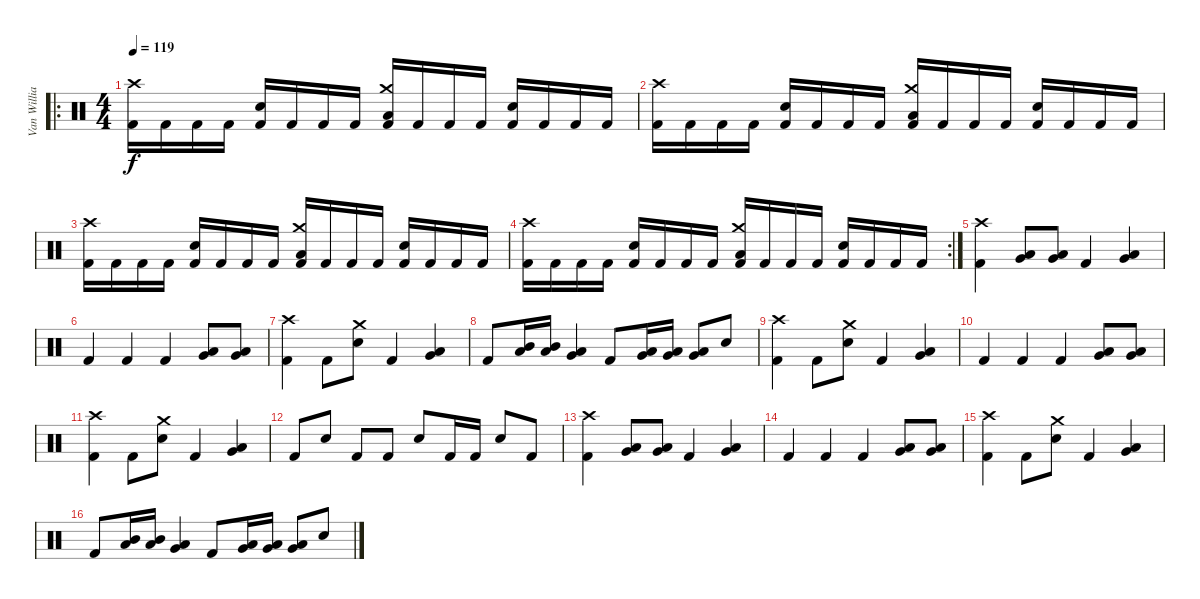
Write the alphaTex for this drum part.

\track ("Van Williams" "Van Willia") {instrument percussion}
\staff {score}
\articulation defaults
\ro
\ts (4 4)
\tempo 119
\clef neutral
\ks c
("Crash high (hit)" "Kick (hit) 2").16{dy f} "Kick (hit) 2".16 "Kick (hit) 2".16 "Kick (hit) 2".16 ("Electric Snare (hit)" "Kick (hit) 2").16 "Kick (hit) 2".16 "Kick (hit) 2".16 "Kick (hit) 2".16 ("Crash medium (hit)" "Low Floor Tom (hit)" "Kick (hit) 2").16 "Kick (hit) 2".16 "Kick (hit) 2".16 "Kick (hit) 2".16 ("Electric Snare (hit)" "Kick (hit) 2").16 "Kick (hit) 2".16 "Kick (hit) 2".16 "Kick (hit) 2".16 |
("Crash high (hit)" "Kick (hit) 2").16 "Kick (hit) 2".16 "Kick (hit) 2".16 "Kick (hit) 2".16 ("Electric Snare (hit)" "Kick (hit) 2").16 "Kick (hit) 2".16 "Kick (hit) 2".16 "Kick (hit) 2".16 ("Crash medium (hit)" "Low Floor Tom (hit)" "Kick (hit) 2").16 "Kick (hit) 2".16 "Kick (hit) 2".16 "Kick (hit) 2".16 ("Electric Snare (hit)" "Kick (hit) 2").16 "Kick (hit) 2".16 "Kick (hit) 2".16 "Kick (hit) 2".16 |
("Crash high (hit)" "Kick (hit) 2").16 "Kick (hit) 2".16 "Kick (hit) 2".16 "Kick (hit) 2".16 ("Electric Snare (hit)" "Kick (hit) 2").16 "Kick (hit) 2".16 "Kick (hit) 2".16 "Kick (hit) 2".16 ("Crash medium (hit)" "Low Floor Tom (hit)" "Kick (hit) 2").16 "Kick (hit) 2".16 "Kick (hit) 2".16 "Kick (hit) 2".16 ("Electric Snare (hit)" "Kick (hit) 2").16 "Kick (hit) 2".16 "Kick (hit) 2".16 "Kick (hit) 2".16 |
\rc 2
("Crash high (hit)" "Kick (hit) 2").16 "Kick (hit) 2".16 "Kick (hit) 2".16 "Kick (hit) 2".16 ("Electric Snare (hit)" "Kick (hit) 2").16 "Kick (hit) 2".16 "Kick (hit) 2".16 "Kick (hit) 2".16 ("Crash medium (hit)" "Low Floor Tom (hit)" "Kick (hit) 2").16 "Kick (hit) 2".16 "Kick (hit) 2".16 "Kick (hit) 2".16 ("Electric Snare (hit)" "Kick (hit) 2").16 "Kick (hit) 2".16 "Kick (hit) 2".16 "Kick (hit) 2".16 |
("Crash high (hit)" "Kick (hit) 2").4 ("Low Tom (hit)" "Very Low Tom (hit)").8 ("Very Low Tom (hit)" "Low Floor Tom (hit)").8 "Kick (hit) 2".4 ("Very Low Tom (hit)" "Low Floor Tom (hit)").4 |
"Kick (hit) 2".4 "Kick (hit) 2".4 "Kick (hit) 2".4 ("Very Low Tom (hit)" "Low Floor Tom (hit)").8 ("Very Low Tom (hit)" "Low Floor Tom (hit)").8 |
("Crash high (hit)" "Kick (hit) 2").4 "Kick (hit) 2".8 ("Crash medium (hit)" "Electric Snare (hit)").8 "Kick (hit) 2".4 ("Very Low Tom (hit)" "Low Floor Tom (hit)").4 |
"Kick (hit) 2".8 ("Mid Tom (hit)" "Low Tom (hit)").16 ("Mid Tom (hit)" "Low Tom (hit)").16 ("Low Tom (hit)" "Very Low Tom (hit)").4 "Kick (hit) 2".8 ("Low Tom (hit)" "Very Low Tom (hit)").16 ("Low Tom (hit)" "Very Low Tom (hit)").16 ("Very Low Tom (hit)" "Low Floor Tom (hit)").8 "Electric Snare (hit)".8 |
("Crash high (hit)" "Kick (hit) 2").4 "Kick (hit) 2".8 ("Crash medium (hit)" "Electric Snare (hit)").8 "Kick (hit) 2".4 ("Very Low Tom (hit)" "Low Floor Tom (hit)").4 |
"Kick (hit) 2".4 "Kick (hit) 2".4 "Kick (hit) 2".4 ("Very Low Tom (hit)" "Low Floor Tom (hit)").8 ("Very Low Tom (hit)" "Low Floor Tom (hit)").8 |
("Crash high (hit)" "Kick (hit) 2").4 "Kick (hit) 2".8 ("Crash medium (hit)" "Electric Snare (hit)").8 "Kick (hit) 2".4 ("Very Low Tom (hit)" "Low Floor Tom (hit)").4 |
"Kick (hit) 2".8 "Electric Snare (hit)".8 "Kick (hit) 2".8 "Kick (hit) 2".8 "Electric Snare (hit)".8 "Kick (hit) 2".16 "Kick (hit) 2".16 "Electric Snare (hit)".8 "Kick (hit) 2".8 |
("Crash high (hit)" "Kick (hit) 2").4 ("Low Tom (hit)" "Very Low Tom (hit)").8 ("Very Low Tom (hit)" "Low Floor Tom (hit)").8 "Kick (hit) 2".4 ("Very Low Tom (hit)" "Low Floor Tom (hit)").4 |
"Kick (hit) 2".4 "Kick (hit) 2".4 "Kick (hit) 2".4 ("Very Low Tom (hit)" "Low Floor Tom (hit)").8 ("Very Low Tom (hit)" "Low Floor Tom (hit)").8 |
("Crash high (hit)" "Kick (hit) 2").4 "Kick (hit) 2".8 ("Crash medium (hit)" "Electric Snare (hit)").8 "Kick (hit) 2".4 ("Very Low Tom (hit)" "Low Floor Tom (hit)").4 |
"Kick (hit) 2".8 ("Mid Tom (hit)" "Low Tom (hit)").16 ("Mid Tom (hit)" "Low Tom (hit)").16 ("Low Tom (hit)" "Very Low Tom (hit)").4 "Kick (hit) 2".8 ("Low Tom (hit)" "Very Low Tom (hit)").16 ("Low Tom (hit)" "Very Low Tom (hit)").16 ("Very Low Tom (hit)" "Low Floor Tom (hit)").8 "Electric Snare (hit)".8
